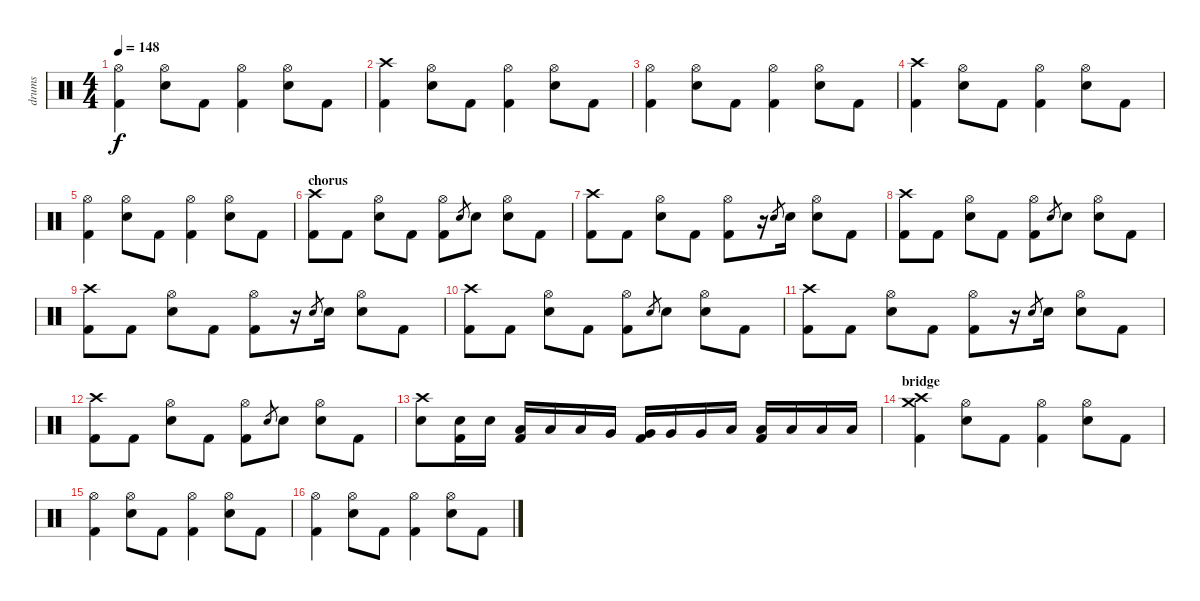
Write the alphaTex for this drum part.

\track ("drums" "drums") {instrument percussion}
\staff {score}
\articulation defaults
\ts (4 4)
\tempo 148
\clef neutral
\ks c
("Hi-Hat (open)" "Kick (hit) 2").4{dy f} ("Hi-Hat (open)" "Electric Snare (hit)").8 "Kick (hit) 2".8 ("Hi-Hat (open)" "Kick (hit) 2").4 ("Hi-Hat (open)" "Electric Snare (hit)").8 "Kick (hit) 2".8 |
("Crash high (hit)" "Kick (hit) 2").4 ("Hi-Hat (open)" "Electric Snare (hit)").8 "Kick (hit) 2".8 ("Hi-Hat (open)" "Kick (hit) 2").4 ("Hi-Hat (open)" "Electric Snare (hit)").8 "Kick (hit) 2".8 |
("Hi-Hat (open)" "Kick (hit) 2").4 ("Hi-Hat (open)" "Electric Snare (hit)").8 "Kick (hit) 2".8 ("Hi-Hat (open)" "Kick (hit) 2").4 ("Hi-Hat (open)" "Electric Snare (hit)").8 "Kick (hit) 2".8 |
("Crash high (hit)" "Kick (hit) 2").4 ("Hi-Hat (open)" "Electric Snare (hit)").8 "Kick (hit) 2".8 ("Hi-Hat (open)" "Kick (hit) 2").4 ("Hi-Hat (open)" "Electric Snare (hit)").8 "Kick (hit) 2".8 |
("Hi-Hat (open)" "Kick (hit) 2").4 ("Hi-Hat (open)" "Electric Snare (hit)").8 "Kick (hit) 2".8 ("Hi-Hat (open)" "Kick (hit) 2").4 ("Hi-Hat (open)" "Electric Snare (hit)").8 "Kick (hit) 2".8 |
\section ("" "chorus")
("Crash high (hit)" "Kick (hit) 2").8 "Kick (hit) 2".8 ("Hi-Hat (open)" "Electric Snare (hit)").8 "Kick (hit) 2".8 ("Hi-Hat (open)" "Kick (hit) 2").8 "Electric Snare (hit)".8{gr} "Electric Snare (hit)".8 ("Hi-Hat (open)" "Electric Snare (hit)").8 "Kick (hit) 2".8 |
("Crash high (hit)" "Kick (hit) 2").8 "Kick (hit) 2".8 ("Hi-Hat (open)" "Electric Snare (hit)").8 "Kick (hit) 2".8 ("Hi-Hat (open)" "Kick (hit) 2").8 r.16 "Electric Snare (hit)".8{gr} "Electric Snare (hit)".16 ("Hi-Hat (open)" "Electric Snare (hit)").8 "Kick (hit) 2".8 |
("Crash high (hit)" "Kick (hit) 2").8 "Kick (hit) 2".8 ("Hi-Hat (open)" "Electric Snare (hit)").8 "Kick (hit) 2".8 ("Hi-Hat (open)" "Kick (hit) 2").8 "Electric Snare (hit)".8{gr} "Electric Snare (hit)".8 ("Hi-Hat (open)" "Electric Snare (hit)").8 "Kick (hit) 2".8 |
("Crash high (hit)" "Kick (hit) 2").8 "Kick (hit) 2".8 ("Hi-Hat (open)" "Electric Snare (hit)").8 "Kick (hit) 2".8 ("Hi-Hat (open)" "Kick (hit) 2").8 r.16 "Electric Snare (hit)".8{gr} "Electric Snare (hit)".16 ("Hi-Hat (open)" "Electric Snare (hit)").8 "Kick (hit) 2".8 |
("Crash high (hit)" "Kick (hit) 2").8 "Kick (hit) 2".8 ("Hi-Hat (open)" "Electric Snare (hit)").8 "Kick (hit) 2".8 ("Hi-Hat (open)" "Kick (hit) 2").8 "Electric Snare (hit)".8{gr} "Electric Snare (hit)".8 ("Hi-Hat (open)" "Electric Snare (hit)").8 "Kick (hit) 2".8 |
("Crash high (hit)" "Kick (hit) 2").8 "Kick (hit) 2".8 ("Hi-Hat (open)" "Electric Snare (hit)").8 "Kick (hit) 2".8 ("Hi-Hat (open)" "Kick (hit) 2").8 r.16 "Electric Snare (hit)".8{gr} "Electric Snare (hit)".16 ("Hi-Hat (open)" "Electric Snare (hit)").8 "Kick (hit) 2".8 |
("Crash high (hit)" "Kick (hit) 2").8 "Kick (hit) 2".8 ("Hi-Hat (open)" "Electric Snare (hit)").8 "Kick (hit) 2".8 ("Hi-Hat (open)" "Kick (hit) 2").8 "Electric Snare (hit)".8{gr} "Electric Snare (hit)".8 ("Hi-Hat (open)" "Electric Snare (hit)").8 "Kick (hit) 2".8 |
("Crash high (hit)" "Electric Snare (hit)").8 ("Electric Snare (hit)" "Kick (hit) 2").16 "Electric Snare (hit)".16 ("Low Tom (hit)" "Kick (hit) 2").16 "Low Tom (hit)".16 "Low Tom (hit)".16 "Very Low Tom (hit)".16 ("Very Low Tom (hit)" "Kick (hit) 2").16 "Very Low Tom (hit)".16 "Very Low Tom (hit)".16 "Low Floor Tom (hit)".16 ("Low Floor Tom (hit)" "Kick (hit) 2").16 "Low Floor Tom (hit)".16 "Low Floor Tom (hit)".16 "Low Floor Tom (hit)".16 |
\section ("" "bridge")
("Crash high (hit)" "Crash medium (hit)" "Kick (hit) 2").4 ("Hi-Hat (open)" "Electric Snare (hit)").8 "Kick (hit) 2".8 ("Hi-Hat (open)" "Kick (hit) 2").4 ("Hi-Hat (open)" "Electric Snare (hit)").8 "Kick (hit) 2".8 |
("Hi-Hat (open)" "Kick (hit) 2").4 ("Hi-Hat (open)" "Electric Snare (hit)").8 "Kick (hit) 2".8 ("Hi-Hat (open)" "Kick (hit) 2").4 ("Hi-Hat (open)" "Electric Snare (hit)").8 "Kick (hit) 2".8 |
("Hi-Hat (open)" "Kick (hit) 2").4 ("Hi-Hat (open)" "Electric Snare (hit)").8 "Kick (hit) 2".8 ("Hi-Hat (open)" "Kick (hit) 2").4 ("Hi-Hat (open)" "Electric Snare (hit)").8 "Kick (hit) 2".8
